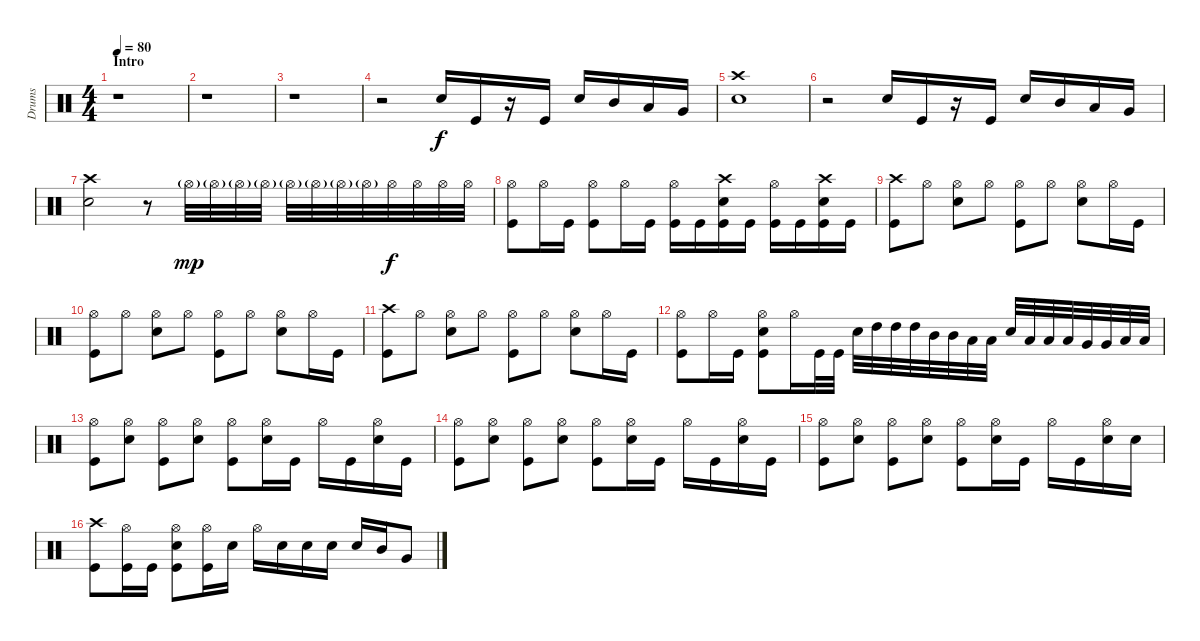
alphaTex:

\track ("Drums" "Drums") {instrument percussion}
\staff {score}
\articulation defaults
\ts (4 4)
\section ("" "Intro")
\tempo 80
\clef neutral
\ks c
r.1{dy f} |
r.1 |
r.1 |
r.2 "Electric Snare (hit)".16 "Kick (hit)".16 r.16 "Kick (hit)".16 "Electric Snare (hit)".16 "Mid Tom (hit)".16 "Low Tom (hit)".16 "Very Low Tom (hit)".16 |
("Crash high (hit)" "Electric Snare (hit)").1 |
r.2 "Electric Snare (hit)".16 "Kick (hit)".16 r.16 "Kick (hit)".16 "Electric Snare (hit)".16 "Mid Tom (hit)".16 "Low Tom (hit)".16 "Very Low Tom (hit)".16 |
("Crash high (hit)" "Electric Snare (hit)").2 r.8 "Hi-Hat (open)"{g}.32{dy mp} "Hi-Hat (open)"{g}.32 "Hi-Hat (open)"{g}.32 "Hi-Hat (open)"{g}.32 "Hi-Hat (open)"{g}.32 "Hi-Hat (open)"{g}.32 "Hi-Hat (open)"{g}.32 "Hi-Hat (open)"{g}.32 "Hi-Hat (open)".32{dy f} "Hi-Hat (open)".32 "Hi-Hat (open)".32 "Hi-Hat (open)".32 |
("Hi-Hat (open)" "Kick (hit)").8 "Hi-Hat (open)".16 "Kick (hit)".16 ("Hi-Hat (open)" "Kick (hit)").8 "Hi-Hat (open)".16 "Kick (hit)".16 ("Hi-Hat (open)" "Kick (hit)").16 "Kick (hit)".16 ("Crash high (hit)" "Electric Snare (hit)" "Kick (hit)").16 "Kick (hit)".16 ("Hi-Hat (open)" "Kick (hit)").16 "Kick (hit)".16 ("Crash high (hit)" "Electric Snare (hit)" "Kick (hit)").16 "Kick (hit)".16 |
("Crash high (hit)" "Kick (hit)").8 "Hi-Hat (open)".8 ("Hi-Hat (open)" "Electric Snare (hit)").8 "Hi-Hat (open)".8 ("Hi-Hat (open)" "Kick (hit)").8 "Hi-Hat (open)".8 ("Hi-Hat (open)" "Electric Snare (hit)").8 "Hi-Hat (open)".16 "Kick (hit)".16 |
("Hi-Hat (open)" "Kick (hit)").8 "Hi-Hat (open)".8 ("Hi-Hat (open)" "Electric Snare (hit)").8 "Hi-Hat (open)".8 ("Hi-Hat (open)" "Kick (hit)").8 "Hi-Hat (open)".8 ("Hi-Hat (open)" "Electric Snare (hit)").8 "Hi-Hat (open)".16 "Kick (hit)".16 |
("Crash high (hit)" "Kick (hit)").8 "Hi-Hat (open)".8 ("Hi-Hat (open)" "Electric Snare (hit)").8 "Hi-Hat (open)".8 ("Hi-Hat (open)" "Kick (hit)").8 "Hi-Hat (open)".8 ("Hi-Hat (open)" "Electric Snare (hit)").8 "Hi-Hat (open)".16 "Kick (hit)".16 |
("Hi-Hat (open)" "Kick (hit)").8 "Hi-Hat (open)".16 "Kick (hit)".16 ("Hi-Hat (open)" "Electric Snare (hit)" "Kick (hit)").8 "Hi-Hat (open)".16 "Kick (hit)".32 "Kick (hit)".32 "Electric Snare (hit)".32 "High Tom (hit)".32 "High Tom (hit)".32 "High Tom (hit)".32 "Mid Tom (hit)".32 "Mid Tom (hit)".32 "Low Tom (hit)".32 "Low Tom (hit)".32 "Electric Snare (hit)".32 "Low Tom (hit)".32 "Low Tom (hit)".32 "Low Tom (hit)".32 "Very Low Tom (hit)".32 "Very Low Tom (hit)".32 "Low Floor Tom (hit)".32 "Low Floor Tom (hit)".32 |
("Hi-Hat (open)" "Kick (hit)").8 ("Hi-Hat (open)" "Electric Snare (hit)").8 ("Hi-Hat (open)" "Kick (hit)").8 ("Hi-Hat (open)" "Electric Snare (hit)").8 ("Hi-Hat (open)" "Kick (hit)").8 ("Hi-Hat (open)" "Electric Snare (hit)").16 "Kick (hit)".16 "Hi-Hat (open)".16 "Kick (hit)".16 ("Hi-Hat (open)" "Electric Snare (hit)").16 "Kick (hit)".16 |
("Hi-Hat (open)" "Kick (hit)").8 ("Hi-Hat (open)" "Electric Snare (hit)").8 ("Hi-Hat (open)" "Kick (hit)").8 ("Hi-Hat (open)" "Electric Snare (hit)").8 ("Hi-Hat (open)" "Kick (hit)").8 ("Hi-Hat (open)" "Electric Snare (hit)").16 "Kick (hit)".16 "Hi-Hat (open)".16 "Kick (hit)".16 ("Hi-Hat (open)" "Electric Snare (hit)").16 "Kick (hit)".16 |
("Hi-Hat (open)" "Kick (hit)").8 ("Hi-Hat (open)" "Electric Snare (hit)").8 ("Hi-Hat (open)" "Kick (hit)").8 ("Hi-Hat (open)" "Electric Snare (hit)").8 ("Hi-Hat (open)" "Kick (hit)").8 ("Hi-Hat (open)" "Electric Snare (hit)").16 "Kick (hit)".16 "Hi-Hat (open)".16 "Kick (hit)".16 ("Hi-Hat (open)" "Electric Snare (hit)").16 "Electric Snare (hit)".16 |
("Crash high (hit)" "Kick (hit)").8 ("Hi-Hat (open)" "Kick (hit)").16 "Kick (hit)".16 ("Hi-Hat (open)" "Electric Snare (hit)" "Kick (hit)").8 ("Hi-Hat (open)" "Kick (hit)").16 "Electric Snare (hit)".16 "Hi-Hat (open)".16 "Electric Snare (hit)".16 "Electric Snare (hit)".16 "Electric Snare (hit)".16 "Electric Snare (hit)".16 "Mid Tom (hit)".16 "Very Low Tom (hit)".8
